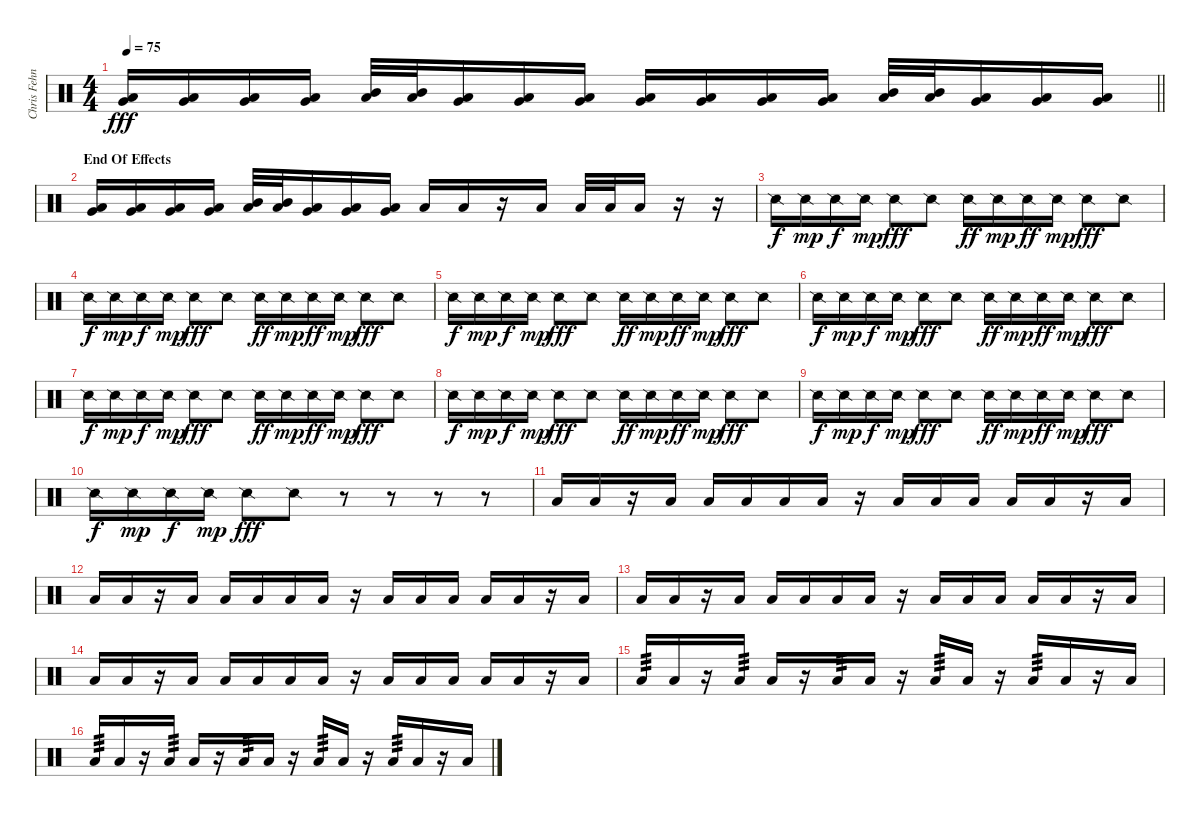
\track ("Chris Fehn" "Chris Fehn") {instrument percussion}
\staff {score}
\articulation defaults
\ts (4 4)
\tempo 75
\clef neutral
\barLineRight lightlight
\ks c
("Very Low Tom (hit)" "Low Floor Tom (hit)").16{bd 60 dy fff} ("Very Low Tom (hit)" "Low Floor Tom (hit)").16{bd 60} ("Very Low Tom (hit)" "Low Floor Tom (hit)").16{bd 60} ("Very Low Tom (hit)" "Low Floor Tom (hit)").16{bd 60} ("Mid Tom (hit)" "Low Tom (hit)").32{bd 60} ("Mid Tom (hit)" "Low Tom (hit)").32{bd 60} ("Low Tom (hit)" "Very Low Tom (hit)").16{bd 60} ("Low Tom (hit)" "Very Low Tom (hit)").16{bd 60} ("Very Low Tom (hit)" "Low Floor Tom (hit)").16{bd 60} ("Very Low Tom (hit)" "Low Floor Tom (hit)").16{bd 60} ("Very Low Tom (hit)" "Low Floor Tom (hit)").16{bd 60} ("Very Low Tom (hit)" "Low Floor Tom (hit)").16{bd 60} ("Very Low Tom (hit)" "Low Floor Tom (hit)").16{bd 60} ("Mid Tom (hit)" "Low Tom (hit)").32{bd 60} ("Mid Tom (hit)" "Low Tom (hit)").32{bd 60} ("Low Tom (hit)" "Very Low Tom (hit)").16{bd 60} ("Low Tom (hit)" "Very Low Tom (hit)").16{bd 60} ("Very Low Tom (hit)" "Low Floor Tom (hit)").16{bd 60} |
\section ("" "End Of Effects")
("Very Low Tom (hit)" "Low Floor Tom (hit)").16{bd 60} ("Very Low Tom (hit)" "Low Floor Tom (hit)").16{bd 60} ("Very Low Tom (hit)" "Low Floor Tom (hit)").16{bd 60} ("Very Low Tom (hit)" "Low Floor Tom (hit)").16{bd 60} ("Mid Tom (hit)" "Low Tom (hit)").32{bd 60} ("Mid Tom (hit)" "Low Tom (hit)").32{bd 60} ("Low Tom (hit)" "Very Low Tom (hit)").16{bd 60} ("Low Tom (hit)" "Very Low Tom (hit)").16{bd 60} ("Very Low Tom (hit)" "Low Floor Tom (hit)").16{bd 60} "Low Floor Tom (hit)".16{bd 60} "Low Floor Tom (hit)".16{bd 60} r.16 "Low Floor Tom (hit)".16{bd 60} "Low Floor Tom (hit)".32{bd 60} "Low Floor Tom (hit)".32{bd 60} "Low Floor Tom (hit)".16{bd 60} r.16 r.16 |
"Snare (side stick) 2".16{dy f} "Snare (side stick) 2".16{dy mp} "Snare (side stick) 2".16{dy f} "Snare (side stick) 2".16{dy mp} "Snare (side stick) 2".8{dy fff} "Snare (side stick) 2".8 "Snare (side stick) 2".16{dy ff} "Snare (side stick) 2".16{dy mp} "Snare (side stick) 2".16{dy ff} "Snare (side stick) 2".16{dy mp} "Snare (side stick) 2".8{dy fff} "Snare (side stick) 2".8 |
"Snare (side stick) 2".16{dy f} "Snare (side stick) 2".16{dy mp} "Snare (side stick) 2".16{dy f} "Snare (side stick) 2".16{dy mp} "Snare (side stick) 2".8{dy fff} "Snare (side stick) 2".8 "Snare (side stick) 2".16{dy ff} "Snare (side stick) 2".16{dy mp} "Snare (side stick) 2".16{dy ff} "Snare (side stick) 2".16{dy mp} "Snare (side stick) 2".8{dy fff} "Snare (side stick) 2".8 |
"Snare (side stick) 2".16{dy f} "Snare (side stick) 2".16{dy mp} "Snare (side stick) 2".16{dy f} "Snare (side stick) 2".16{dy mp} "Snare (side stick) 2".8{dy fff} "Snare (side stick) 2".8 "Snare (side stick) 2".16{dy ff} "Snare (side stick) 2".16{dy mp} "Snare (side stick) 2".16{dy ff} "Snare (side stick) 2".16{dy mp} "Snare (side stick) 2".8{dy fff} "Snare (side stick) 2".8 |
"Snare (side stick) 2".16{dy f} "Snare (side stick) 2".16{dy mp} "Snare (side stick) 2".16{dy f} "Snare (side stick) 2".16{dy mp} "Snare (side stick) 2".8{dy fff} "Snare (side stick) 2".8 "Snare (side stick) 2".16{dy ff} "Snare (side stick) 2".16{dy mp} "Snare (side stick) 2".16{dy ff} "Snare (side stick) 2".16{dy mp} "Snare (side stick) 2".8{dy fff} "Snare (side stick) 2".8 |
"Snare (side stick) 2".16{dy f} "Snare (side stick) 2".16{dy mp} "Snare (side stick) 2".16{dy f} "Snare (side stick) 2".16{dy mp} "Snare (side stick) 2".8{dy fff} "Snare (side stick) 2".8 "Snare (side stick) 2".16{dy ff} "Snare (side stick) 2".16{dy mp} "Snare (side stick) 2".16{dy ff} "Snare (side stick) 2".16{dy mp} "Snare (side stick) 2".8{dy fff} "Snare (side stick) 2".8 |
"Snare (side stick) 2".16{dy f} "Snare (side stick) 2".16{dy mp} "Snare (side stick) 2".16{dy f} "Snare (side stick) 2".16{dy mp} "Snare (side stick) 2".8{dy fff} "Snare (side stick) 2".8 "Snare (side stick) 2".16{dy ff} "Snare (side stick) 2".16{dy mp} "Snare (side stick) 2".16{dy ff} "Snare (side stick) 2".16{dy mp} "Snare (side stick) 2".8{dy fff} "Snare (side stick) 2".8 |
"Snare (side stick) 2".16{dy f} "Snare (side stick) 2".16{dy mp} "Snare (side stick) 2".16{dy f} "Snare (side stick) 2".16{dy mp} "Snare (side stick) 2".8{dy fff} "Snare (side stick) 2".8 "Snare (side stick) 2".16{dy ff} "Snare (side stick) 2".16{dy mp} "Snare (side stick) 2".16{dy ff} "Snare (side stick) 2".16{dy mp} "Snare (side stick) 2".8{dy fff} "Snare (side stick) 2".8 |
"Snare (side stick) 2".16{dy f} "Snare (side stick) 2".16{dy mp} "Snare (side stick) 2".16{dy f} "Snare (side stick) 2".16{dy mp} "Snare (side stick) 2".8{dy fff} "Snare (side stick) 2".8 r.8 r.8 r.8 r.8 |
"Low Floor Tom (hit)".16 "Low Floor Tom (hit)".16 r.16 "Low Floor Tom (hit)".16 "Low Floor Tom (hit)".16 "Low Floor Tom (hit)".16 "Low Floor Tom (hit)".16 "Low Floor Tom (hit)".16 r.16 "Low Floor Tom (hit)".16 "Low Floor Tom (hit)".16 "Low Floor Tom (hit)".16 "Low Floor Tom (hit)".16 "Low Floor Tom (hit)".16 r.16 "Low Floor Tom (hit)".16 |
"Low Floor Tom (hit)".16 "Low Floor Tom (hit)".16 r.16 "Low Floor Tom (hit)".16 "Low Floor Tom (hit)".16 "Low Floor Tom (hit)".16 "Low Floor Tom (hit)".16 "Low Floor Tom (hit)".16 r.16 "Low Floor Tom (hit)".16 "Low Floor Tom (hit)".16 "Low Floor Tom (hit)".16 "Low Floor Tom (hit)".16 "Low Floor Tom (hit)".16 r.16 "Low Floor Tom (hit)".16 |
"Low Floor Tom (hit)".16 "Low Floor Tom (hit)".16 r.16 "Low Floor Tom (hit)".16 "Low Floor Tom (hit)".16 "Low Floor Tom (hit)".16 "Low Floor Tom (hit)".16 "Low Floor Tom (hit)".16 r.16 "Low Floor Tom (hit)".16 "Low Floor Tom (hit)".16 "Low Floor Tom (hit)".16 "Low Floor Tom (hit)".16 "Low Floor Tom (hit)".16 r.16 "Low Floor Tom (hit)".16 |
"Low Floor Tom (hit)".16 "Low Floor Tom (hit)".16 r.16 "Low Floor Tom (hit)".16 "Low Floor Tom (hit)".16 "Low Floor Tom (hit)".16 "Low Floor Tom (hit)".16 "Low Floor Tom (hit)".16 r.16 "Low Floor Tom (hit)".16 "Low Floor Tom (hit)".16 "Low Floor Tom (hit)".16 "Low Floor Tom (hit)".16 "Low Floor Tom (hit)".16 r.16 "Low Floor Tom (hit)".16 |
"Low Floor Tom (hit)".16{tp 3} "Low Floor Tom (hit)".16 r.16 "Low Floor Tom (hit)".16{tp 3} "Low Floor Tom (hit)".16 r.16 "Low Floor Tom (hit)".16{tp 3} "Low Floor Tom (hit)".16 r.16 "Low Floor Tom (hit)".16{tp 3} "Low Floor Tom (hit)".16 r.16 "Low Floor Tom (hit)".16{tp 3} "Low Floor Tom (hit)".16 r.16 "Low Floor Tom (hit)".16 |
"Low Floor Tom (hit)".16{tp 3} "Low Floor Tom (hit)".16 r.16 "Low Floor Tom (hit)".16{tp 3} "Low Floor Tom (hit)".16 r.16 "Low Floor Tom (hit)".16{tp 3} "Low Floor Tom (hit)".16 r.16 "Low Floor Tom (hit)".16{tp 3} "Low Floor Tom (hit)".16 r.16 "Low Floor Tom (hit)".16{tp 3} "Low Floor Tom (hit)".16 r.16 "Low Floor Tom (hit)".16
